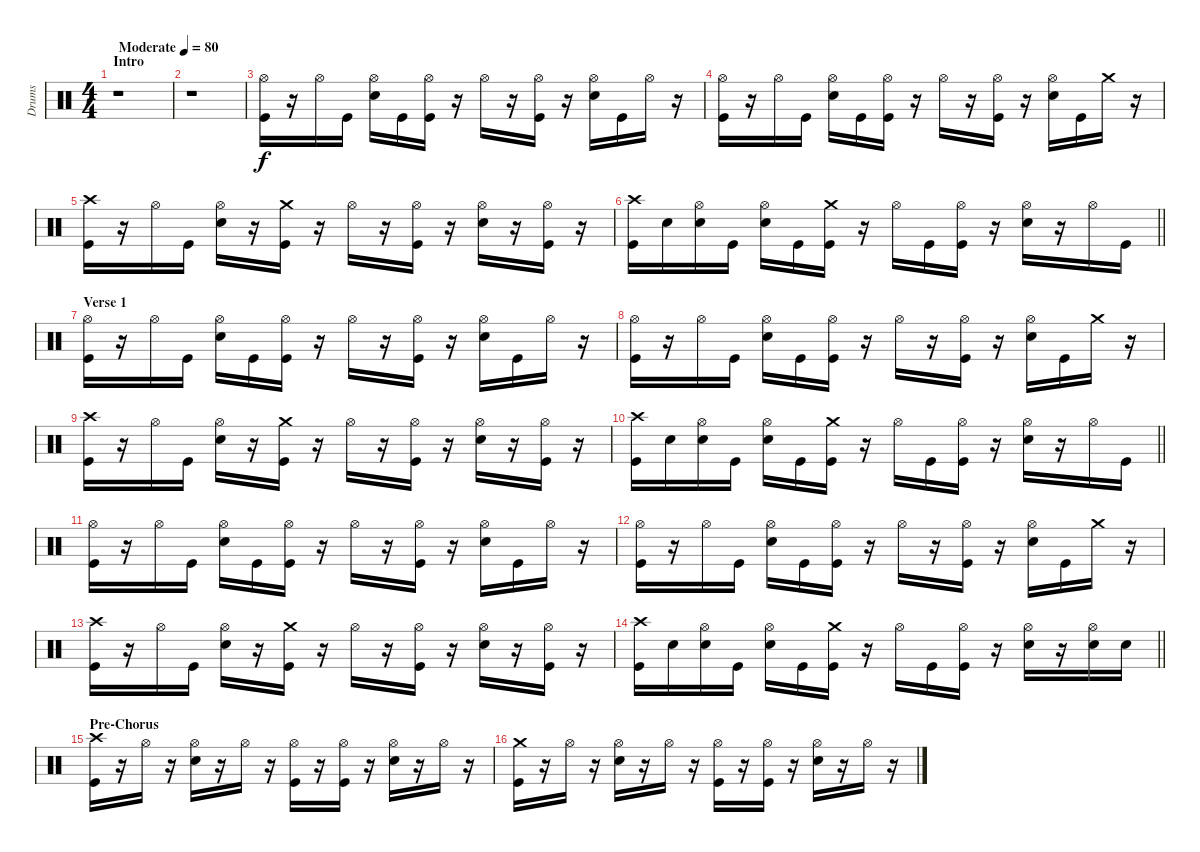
\track ("Drums" "Drums") {instrument percussion}
\staff {score}
\articulation defaults
\ts (4 4)
\section ("" "Intro")
\tempo (80 "Moderate")
\clef neutral
\ks c
r.1{dy f} |
r.1 |
("Hi-Hat (open)" "Kick (hit)").16 r.16 "Hi-Hat (open)".16 "Kick (hit)".16 ("Hi-Hat (open)" "Electric Snare (hit)").16 "Kick (hit)".16 ("Hi-Hat (open)" "Kick (hit)").16 r.16 "Hi-Hat (open)".16 r.16 ("Hi-Hat (open)" "Kick (hit)").16 r.16 ("Hi-Hat (open)" "Electric Snare (hit)").16 "Kick (hit)".16 "Hi-Hat (open)".16 r.16 |
("Hi-Hat (open)" "Kick (hit)").16 r.16 "Hi-Hat (open)".16 "Kick (hit)".16 ("Hi-Hat (open)" "Electric Snare (hit)").16 "Kick (hit)".16 ("Hi-Hat (open)" "Kick (hit)").16 r.16 "Hi-Hat (open)".16 r.16 ("Hi-Hat (open)" "Kick (hit)").16 r.16 ("Hi-Hat (open)" "Electric Snare (hit)").16 "Kick (hit)".16 "Crash medium (hit)".16 r.16 |
("Crash high (hit)" "Kick (hit)").16 r.16 "Hi-Hat (open)".16 "Kick (hit)".16 ("Hi-Hat (open)" "Electric Snare (hit)").16 r.16 ("Crash medium (hit)" "Kick (hit)").16 r.16 "Hi-Hat (open)".16 r.16 ("Hi-Hat (open)" "Kick (hit)").16 r.16 ("Hi-Hat (open)" "Electric Snare (hit)").16 r.16 ("Hi-Hat (open)" "Kick (hit)").16 r.16 |
\barLineRight lightlight
("Crash high (hit)" "Kick (hit)").16 "Electric Snare (hit)".16 ("Hi-Hat (open)" "Electric Snare (hit)").16 "Kick (hit)".16 ("Hi-Hat (open)" "Electric Snare (hit)").16 "Kick (hit)".16 ("Crash medium (hit)" "Kick (hit)").16 r.16 "Hi-Hat (open)".16 "Kick (hit)".16 ("Hi-Hat (open)" "Kick (hit)").16 r.16 ("Hi-Hat (open)" "Electric Snare (hit)").16 r.16 "Hi-Hat (open)".16 "Kick (hit)".16 |
\section ("" "Verse 1")
("Hi-Hat (open)" "Kick (hit)").16 r.16 "Hi-Hat (open)".16 "Kick (hit)".16 ("Hi-Hat (open)" "Electric Snare (hit)").16 "Kick (hit)".16 ("Hi-Hat (open)" "Kick (hit)").16 r.16 "Hi-Hat (open)".16 r.16 ("Hi-Hat (open)" "Kick (hit)").16 r.16 ("Hi-Hat (open)" "Electric Snare (hit)").16 "Kick (hit)".16 "Hi-Hat (open)".16 r.16 |
("Hi-Hat (open)" "Kick (hit)").16 r.16 "Hi-Hat (open)".16 "Kick (hit)".16 ("Hi-Hat (open)" "Electric Snare (hit)").16 "Kick (hit)".16 ("Hi-Hat (open)" "Kick (hit)").16 r.16 "Hi-Hat (open)".16 r.16 ("Hi-Hat (open)" "Kick (hit)").16 r.16 ("Hi-Hat (open)" "Electric Snare (hit)").16 "Kick (hit)".16 "Crash medium (hit)".16 r.16 |
("Crash high (hit)" "Kick (hit)").16 r.16 "Hi-Hat (open)".16 "Kick (hit)".16 ("Hi-Hat (open)" "Electric Snare (hit)").16 r.16 ("Crash medium (hit)" "Kick (hit)").16 r.16 "Hi-Hat (open)".16 r.16 ("Hi-Hat (open)" "Kick (hit)").16 r.16 ("Hi-Hat (open)" "Electric Snare (hit)").16 r.16 ("Hi-Hat (open)" "Kick (hit)").16 r.16 |
\barLineRight lightlight
("Crash high (hit)" "Kick (hit)").16 "Electric Snare (hit)".16 ("Hi-Hat (open)" "Electric Snare (hit)").16 "Kick (hit)".16 ("Hi-Hat (open)" "Electric Snare (hit)").16 "Kick (hit)".16 ("Crash medium (hit)" "Kick (hit)").16 r.16 "Hi-Hat (open)".16 "Kick (hit)".16 ("Hi-Hat (open)" "Kick (hit)").16 r.16 ("Hi-Hat (open)" "Electric Snare (hit)").16 r.16 "Hi-Hat (open)".16 "Kick (hit)".16 |
("Hi-Hat (open)" "Kick (hit)").16 r.16 "Hi-Hat (open)".16 "Kick (hit)".16 ("Hi-Hat (open)" "Electric Snare (hit)").16 "Kick (hit)".16 ("Hi-Hat (open)" "Kick (hit)").16 r.16 "Hi-Hat (open)".16 r.16 ("Hi-Hat (open)" "Kick (hit)").16 r.16 ("Hi-Hat (open)" "Electric Snare (hit)").16 "Kick (hit)".16 "Hi-Hat (open)".16 r.16 |
("Hi-Hat (open)" "Kick (hit)").16 r.16 "Hi-Hat (open)".16 "Kick (hit)".16 ("Hi-Hat (open)" "Electric Snare (hit)").16 "Kick (hit)".16 ("Hi-Hat (open)" "Kick (hit)").16 r.16 "Hi-Hat (open)".16 r.16 ("Hi-Hat (open)" "Kick (hit)").16 r.16 ("Hi-Hat (open)" "Electric Snare (hit)").16 "Kick (hit)".16 "Crash medium (hit)".16 r.16 |
("Crash high (hit)" "Kick (hit)").16 r.16 "Hi-Hat (open)".16 "Kick (hit)".16 ("Hi-Hat (open)" "Electric Snare (hit)").16 r.16 ("Crash medium (hit)" "Kick (hit)").16 r.16 "Hi-Hat (open)".16 r.16 ("Hi-Hat (open)" "Kick (hit)").16 r.16 ("Hi-Hat (open)" "Electric Snare (hit)").16 r.16 ("Hi-Hat (open)" "Kick (hit)").16 r.16 |
\barLineRight lightlight
("Crash high (hit)" "Kick (hit)").16 "Electric Snare (hit)".16 ("Hi-Hat (open)" "Electric Snare (hit)").16 "Kick (hit)".16 ("Hi-Hat (open)" "Electric Snare (hit)").16 "Kick (hit)".16 ("Crash medium (hit)" "Kick (hit)").16 r.16 "Hi-Hat (open)".16 "Kick (hit)".16 ("Hi-Hat (open)" "Kick (hit)").16 r.16 ("Hi-Hat (open)" "Electric Snare (hit)").16 r.16 ("Hi-Hat (open)" "Electric Snare (hit)").16 "Electric Snare (hit)".16 |
\section ("" "Pre-Chorus")
("Crash high (hit)" "Kick (hit)").16 r.16 "Hi-Hat (open)".16 r.16 ("Hi-Hat (open)" "Electric Snare (hit)").16 r.16 "Hi-Hat (open)".16 r.16 ("Hi-Hat (open)" "Kick (hit)").16 r.16 ("Hi-Hat (open)" "Kick (hit)").16 r.16 ("Hi-Hat (open)" "Electric Snare (hit)").16 r.16 "Hi-Hat (open)".16 r.16 |
("Crash medium (hit)" "Kick (hit)").16 r.16 "Hi-Hat (open)".16 r.16 ("Hi-Hat (open)" "Electric Snare (hit)").16 r.16 "Hi-Hat (open)".16 r.16 ("Hi-Hat (open)" "Kick (hit)").16 r.16 ("Hi-Hat (open)" "Kick (hit)").16 r.16 ("Hi-Hat (open)" "Electric Snare (hit)").16 r.16 "Hi-Hat (open)".16 r.16
